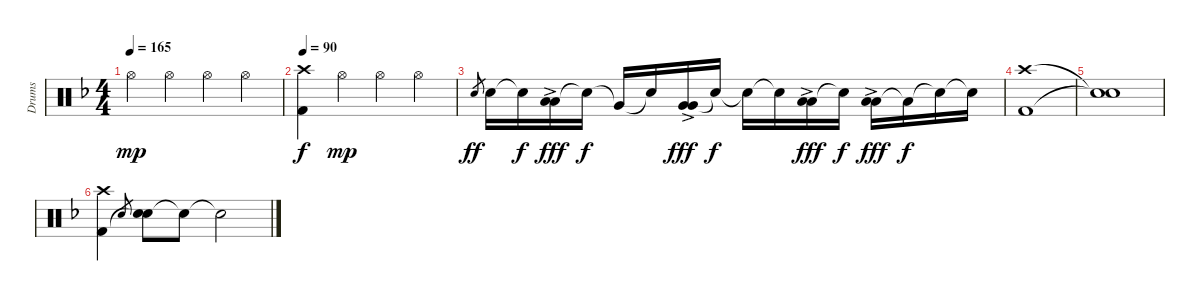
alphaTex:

\track ("Drums" "Drums") {instrument percussion}
\staff {score}
\articulation defaults
\ts (4 4)
\tempo 165
\clef neutral
\ks f "Hi-Hat (open)".4{dy mp} "Hi-Hat (open)".4 "Hi-Hat (open)".4 "Hi-Hat (open)".4
|
\tempo 90
("Crash high (hit)" "Kick (hit) 2").4{dy f} "Hi-Hat (open)".4{dy mp} "Hi-Hat (open)".4 "Hi-Hat (open)".4 |
"Snare (hit) 2".8{gr dy ff} "Snare (hit) 2".16 "Snare (hit) 2"{t}.16{dy f} ("Low Tom (hit)" "Low Tom (hit)"{ac}).16{dy fff} "Snare (hit)"{t}.16{dy f} "Very Low Tom (hit)"{t}.16 "Snare (hit)"{t}.16 ("Very Low Tom (hit)" "Very Low Tom (hit)"{ac}).16{dy fff} "Snare (hit)"{t}.16{dy f} "Snare (hit)"{t}.16 "Snare (hit)"{t}.16 ("Low Floor Tom (hit)" "Low Floor Tom (hit)"{ac}).16{dy fff} "Snare (hit)"{t}.16{dy f} ("Low Floor Tom (hit)" "Low Floor Tom (hit)"{ac}).16{dy fff} "Low Floor Tom (hit)"{t}.16{dy f} "Snare (hit)"{t}.16 "Snare (hit)"{t}.16 |
("Crash high (hit)" "Kick (hit) 2").1 |
("Snare (hit)"{t} "Snare (hit)"{t}).1 |
("Crash high (hit)" "Kick (hit) 2").4 "Snare (hit) 2".8{gr} ("Snare (hit) 2" "Snare (hit)"{t}).8 "Snare (hit)"{t}.8 "Snare (hit)"{t}.2
